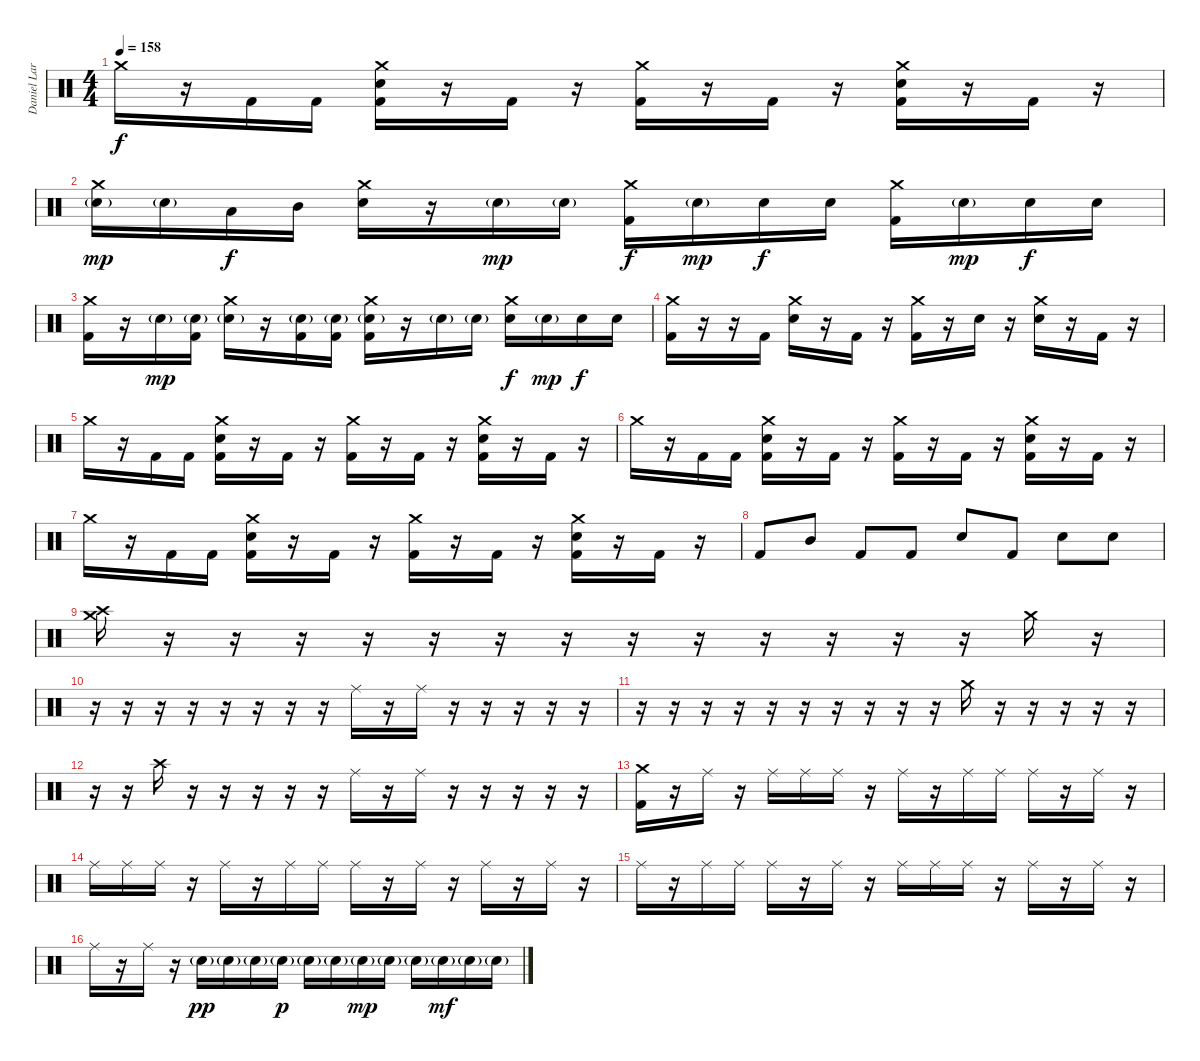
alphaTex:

\track ("Daniel Larsen" "Daniel Lar") {instrument percussion}
\staff {score}
\articulation defaults
\ts (4 4)
\tempo 158
\clef neutral
\ks c "Crash medium (hit)".16{dy f}
r.16 "Kick (hit) 2".16 "Kick (hit) 2".16 ("Crash medium (hit)" "Electric Snare (hit)" "Kick (hit) 2").16 r.16 "Kick (hit) 2".16 r.16 ("Crash medium (hit)" "Kick (hit) 2").16 r.16 "Kick (hit) 2".16 r.16 ("Crash medium (hit)" "Electric Snare (hit)" "Kick (hit) 2").16 r.16 "Kick (hit) 2".16 r.16 |
("Crash medium (hit)" "Electric Snare (hit)"{g}).16{dy mp} "Electric Snare (hit)"{g}.16 "Low Tom (hit)".16{dy f} "Mid Tom (hit)".16 ("Crash medium (hit)" "Electric Snare (hit)").16 r.16 "Electric Snare (hit)"{g}.16{dy mp} "Electric Snare (hit)"{g}.16 ("Crash medium (hit)" "Kick (hit) 2").16{dy f} "Electric Snare (hit)"{g}.16{dy mp} "Electric Snare (hit)".16{dy f} "Electric Snare (hit)".16 ("Crash medium (hit)" "Kick (hit) 2").16 "Electric Snare (hit)"{g}.16{dy mp} "Electric Snare (hit)".16{dy f} "Electric Snare (hit)".16 |
("Crash medium (hit)" "Kick (hit) 2").16 r.16 "Electric Snare (hit)"{g}.16{dy mp} ("Electric Snare (hit)"{g} "Kick (hit) 2").16 ("Crash medium (hit)" "Electric Snare (hit)"{g}).16 r.16 ("Electric Snare (hit)"{g} "Kick (hit) 2").16 ("Electric Snare (hit)"{g} "Kick (hit) 2").16 ("Crash medium (hit)" "Electric Snare (hit)"{g} "Kick (hit) 2").16 r.16 "Electric Snare (hit)"{g}.16 "Electric Snare (hit)"{g}.16 ("Crash medium (hit)" "Electric Snare (hit)").16{dy f} "Electric Snare (hit)"{g}.16{dy mp} "Electric Snare (hit)".16{dy f} "Electric Snare (hit)".16 |
("Crash medium (hit)" "Kick (hit) 2").16 r.16 r.16 "Kick (hit) 2".16 ("Crash medium (hit)" "Electric Snare (hit)").16 r.16 "Kick (hit) 2".16 r.16 ("Crash medium (hit)" "Kick (hit) 2").16 r.16 "Electric Snare (hit)".16 r.16 ("Crash medium (hit)" "Electric Snare (hit)").16 r.16 "Kick (hit) 2".16 r.16 |
"Crash medium (hit)".16 r.16 "Kick (hit) 2".16 "Kick (hit) 2".16 ("Crash medium (hit)" "Electric Snare (hit)" "Kick (hit) 2").16 r.16 "Kick (hit) 2".16 r.16 ("Crash medium (hit)" "Kick (hit) 2").16 r.16 "Kick (hit) 2".16 r.16 ("Crash medium (hit)" "Electric Snare (hit)" "Kick (hit) 2").16 r.16 "Kick (hit) 2".16 r.16 |
"Crash medium (hit)".16 r.16 "Kick (hit) 2".16 "Kick (hit) 2".16 ("Crash medium (hit)" "Electric Snare (hit)" "Kick (hit) 2").16 r.16 "Kick (hit) 2".16 r.16 ("Crash medium (hit)" "Kick (hit) 2").16 r.16 "Kick (hit) 2".16 r.16 ("Crash medium (hit)" "Electric Snare (hit)" "Kick (hit) 2").16 r.16 "Kick (hit) 2".16 r.16 |
"Crash medium (hit)".16 r.16 "Kick (hit) 2".16 "Kick (hit) 2".16 ("Crash medium (hit)" "Electric Snare (hit)" "Kick (hit) 2").16 r.16 "Kick (hit) 2".16 r.16 ("Crash medium (hit)" "Kick (hit) 2").16 r.16 "Kick (hit) 2".16 r.16 ("Crash medium (hit)" "Electric Snare (hit)" "Kick (hit) 2").16 r.16 "Kick (hit) 2".16 r.16 |
"Kick (hit) 2".8 "Mid Tom (hit)".8 "Kick (hit) 2".8 "Kick (hit) 2".8 "Electric Snare (hit)".8 "Kick (hit) 2".8 "Electric Snare (hit)".8 "Electric Snare (hit)".8 |
("Crash high (hit)" "Crash medium (hit)").16 r.16 r.16 r.16 r.16 r.16 r.16 r.16 r.16 r.16 r.16 r.16 r.16 r.16 "Crash medium (hit)".16 r.16 |
r.16 r.16 r.16 r.16 r.16 r.16 r.16 r.16 "Ride (middle)".16 r.16 "Ride (middle)".16 r.16 r.16 r.16 r.16 r.16 |
r.16 r.16 r.16 r.16 r.16 r.16 r.16 r.16 r.16 r.16 "Crash medium (hit)".16 r.16 r.16 r.16 r.16 r.16 |
r.16 r.16 "Crash high (hit)".16 r.16 r.16 r.16 r.16 r.16 "Ride (middle)".16 r.16 "Ride (middle)".16 r.16 r.16 r.16 r.16 r.16 |
("Crash medium (hit)" "Kick (hit) 2").16 r.16 "Ride (middle)".16 r.16 "Ride (middle)".16 "Ride (middle)".16 "Ride (middle)".16 r.16 "Ride (middle)".16 r.16 "Ride (middle)".16 "Ride (middle)".16 "Ride (middle)".16 r.16 "Ride (middle)".16 r.16 |
"Ride (middle)".16 "Ride (middle)".16 "Ride (middle)".16 r.16 "Ride (middle)".16 r.16 "Ride (middle)".16 "Ride (middle)".16 "Ride (middle)".16 r.16 "Ride (middle)".16 r.16 "Ride (middle)".16 r.16 "Ride (middle)".16 r.16 |
"Ride (middle)".16 r.16 "Ride (middle)".16 "Ride (middle)".16 "Ride (middle)".16 r.16 "Ride (middle)".16 r.16 "Ride (middle)".16 "Ride (middle)".16 "Ride (middle)".16 r.16 "Ride (middle)".16 r.16 "Ride (middle)".16 r.16 |
"Ride (middle)".16 r.16 "Ride (middle)".16 r.16 "Electric Snare (hit)"{g}.16{dy pp} "Electric Snare (hit)"{g}.16 "Electric Snare (hit)"{g}.16 "Electric Snare (hit)"{g}.16{dy p} "Electric Snare (hit)"{g}.16 "Electric Snare (hit)"{g}.16 "Electric Snare (hit)"{g}.16{dy mp} "Electric Snare (hit)"{g}.16 "Electric Snare (hit)"{g}.16 "Electric Snare (hit)"{g}.16{dy mf} "Electric Snare (hit)"{g}.16 "Electric Snare (hit)"{g}.16
